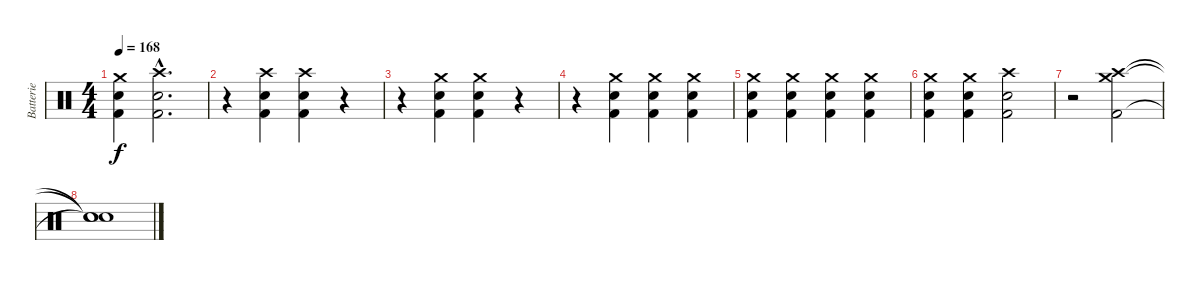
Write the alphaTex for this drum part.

\track ("Batterie" "Batterie") {instrument percussion}
\staff {score}
\articulation defaults
\ts (4 4)
\tempo 168
\clef neutral
\ks c
("Crash medium (hit)" "Snare (hit) 2" "Kick (hit) 2").4{dy f} ("Crash high (hit)"{hac} "Snare (hit) 2"{hac} "Kick (hit) 2"{hac}).2{d} |
r.4 ("Crash high (hit)" "Snare (hit) 2" "Kick (hit) 2").4 ("Crash high (hit)" "Snare (hit) 2" "Kick (hit) 2").4 r.4 |
r.4 ("Crash medium (hit)" "Snare (hit) 2" "Kick (hit) 2").4 ("Crash medium (hit)" "Snare (hit) 2" "Kick (hit) 2").4 r.4 |
r.4 ("Crash medium (hit)" "Snare (hit) 2" "Kick (hit) 2").4 ("Crash medium (hit)" "Snare (hit) 2" "Kick (hit) 2").4 ("Crash medium (hit)" "Snare (hit) 2" "Kick (hit) 2").4 |
("Crash medium (hit)" "Snare (hit) 2" "Kick (hit) 2").4 ("Crash medium (hit)" "Snare (hit) 2" "Kick (hit) 2").4 ("Crash medium (hit)" "Snare (hit) 2" "Kick (hit) 2").4 ("Crash medium (hit)" "Snare (hit) 2" "Kick (hit) 2").4 |
("Crash medium (hit)" "Snare (hit) 2" "Kick (hit) 2").4 ("Crash medium (hit)" "Snare (hit) 2" "Kick (hit) 2").4 ("Crash high (hit)" "Snare (hit) 2" "Kick (hit) 2").2 |
r.2 ("Crash high (hit)" "Crash medium (hit)" "Kick (hit) 2").2 |
("Snare (hit)"{t} "Snare (hit)"{t} "Snare (hit)"{t}).1
